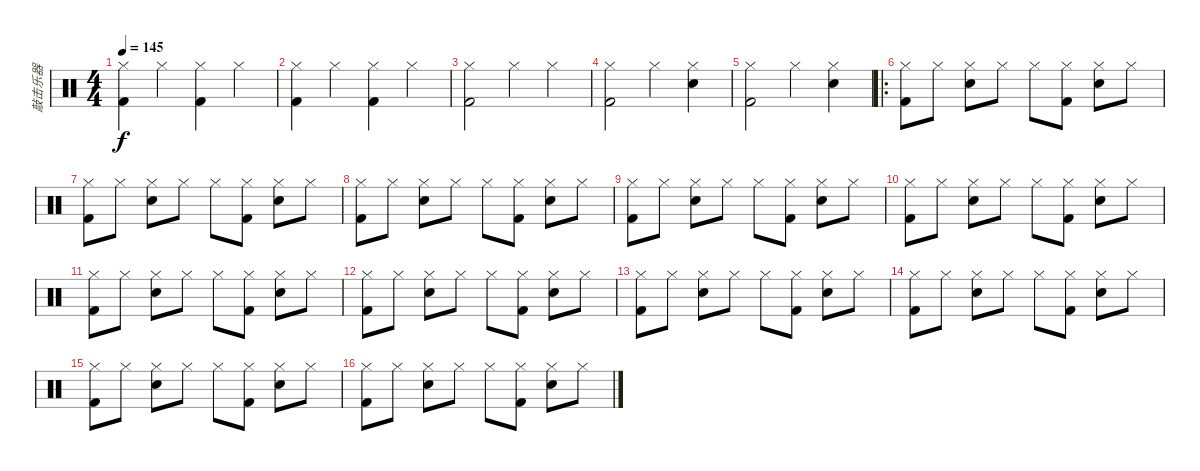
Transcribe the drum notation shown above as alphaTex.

\track ("敲击乐器" "敲击乐器") {instrument percussion}
\staff {score}
\articulation defaults
\ts (4 4)
\tempo 145
\clef neutral
\ks c
("Hi-Hat (closed)" "Kick (hit) 2").4{dy f} "Hi-Hat (closed)".4 ("Hi-Hat (closed)" "Kick (hit) 2").4 "Hi-Hat (closed)".4 |
("Hi-Hat (closed)" "Kick (hit) 2").4 "Hi-Hat (closed)".4 ("Hi-Hat (closed)" "Kick (hit) 2").4 "Hi-Hat (closed)".4 |
("Hi-Hat (closed)" "Kick (hit) 2").2 "Hi-Hat (closed)".4 "Hi-Hat (closed)".4 |
("Hi-Hat (closed)" "Kick (hit) 2").2 "Hi-Hat (closed)".4 ("Hi-Hat (closed)" "Snare (hit) 2").4 |
("Hi-Hat (closed)" "Kick (hit) 2").2 "Hi-Hat (closed)".4 ("Hi-Hat (closed)" "Snare (hit) 2").4 |
\ro
("Hi-Hat (closed)" "Kick (hit) 2").8 "Hi-Hat (closed)".8 ("Hi-Hat (closed)" "Snare (hit) 2").8 "Hi-Hat (closed)".8 "Hi-Hat (closed)".8 ("Hi-Hat (closed)" "Kick (hit) 2").8 ("Hi-Hat (closed)" "Snare (hit) 2").8 "Hi-Hat (closed)".8 |
("Hi-Hat (closed)" "Kick (hit) 2").8 "Hi-Hat (closed)".8 ("Hi-Hat (closed)" "Snare (hit) 2").8 "Hi-Hat (closed)".8 "Hi-Hat (closed)".8 ("Hi-Hat (closed)" "Kick (hit) 2").8 ("Hi-Hat (closed)" "Snare (hit) 2").8 "Hi-Hat (closed)".8 |
("Hi-Hat (closed)" "Kick (hit) 2").8 "Hi-Hat (closed)".8 ("Hi-Hat (closed)" "Snare (hit) 2").8 "Hi-Hat (closed)".8 "Hi-Hat (closed)".8 ("Hi-Hat (closed)" "Kick (hit) 2").8 ("Hi-Hat (closed)" "Snare (hit) 2").8 "Hi-Hat (closed)".8 |
("Hi-Hat (closed)" "Kick (hit) 2").8 "Hi-Hat (closed)".8 ("Hi-Hat (closed)" "Snare (hit) 2").8 "Hi-Hat (closed)".8 "Hi-Hat (closed)".8 ("Hi-Hat (closed)" "Kick (hit) 2").8 ("Hi-Hat (closed)" "Snare (hit) 2").8 "Hi-Hat (closed)".8 |
("Hi-Hat (closed)" "Kick (hit) 2").8 "Hi-Hat (closed)".8 ("Hi-Hat (closed)" "Snare (hit) 2").8 "Hi-Hat (closed)".8 "Hi-Hat (closed)".8 ("Hi-Hat (closed)" "Kick (hit) 2").8 ("Hi-Hat (closed)" "Snare (hit) 2").8 "Hi-Hat (closed)".8 |
("Hi-Hat (closed)" "Kick (hit) 2").8 "Hi-Hat (closed)".8 ("Hi-Hat (closed)" "Snare (hit) 2").8 "Hi-Hat (closed)".8 "Hi-Hat (closed)".8 ("Hi-Hat (closed)" "Kick (hit) 2").8 ("Hi-Hat (closed)" "Snare (hit) 2").8 "Hi-Hat (closed)".8 |
("Hi-Hat (closed)" "Kick (hit) 2").8 "Hi-Hat (closed)".8 ("Hi-Hat (closed)" "Snare (hit) 2").8 "Hi-Hat (closed)".8 "Hi-Hat (closed)".8 ("Hi-Hat (closed)" "Kick (hit) 2").8 ("Hi-Hat (closed)" "Snare (hit) 2").8 "Hi-Hat (closed)".8 |
("Hi-Hat (closed)" "Kick (hit) 2").8 "Hi-Hat (closed)".8 ("Hi-Hat (closed)" "Snare (hit) 2").8 "Hi-Hat (closed)".8 "Hi-Hat (closed)".8 ("Hi-Hat (closed)" "Kick (hit) 2").8 ("Hi-Hat (closed)" "Snare (hit) 2").8 "Hi-Hat (closed)".8 |
("Hi-Hat (closed)" "Kick (hit) 2").8 "Hi-Hat (closed)".8 ("Hi-Hat (closed)" "Snare (hit) 2").8 "Hi-Hat (closed)".8 "Hi-Hat (closed)".8 ("Hi-Hat (closed)" "Kick (hit) 2").8 ("Hi-Hat (closed)" "Snare (hit) 2").8 "Hi-Hat (closed)".8 |
("Hi-Hat (closed)" "Kick (hit) 2").8 "Hi-Hat (closed)".8 ("Hi-Hat (closed)" "Snare (hit) 2").8 "Hi-Hat (closed)".8 "Hi-Hat (closed)".8 ("Hi-Hat (closed)" "Kick (hit) 2").8 ("Hi-Hat (closed)" "Snare (hit) 2").8 "Hi-Hat (closed)".8 |
("Hi-Hat (closed)" "Kick (hit) 2").8 "Hi-Hat (closed)".8 ("Hi-Hat (closed)" "Snare (hit) 2").8 "Hi-Hat (closed)".8 "Hi-Hat (closed)".8 ("Hi-Hat (closed)" "Kick (hit) 2").8 ("Hi-Hat (closed)" "Snare (hit) 2").8 "Hi-Hat (closed)".8
